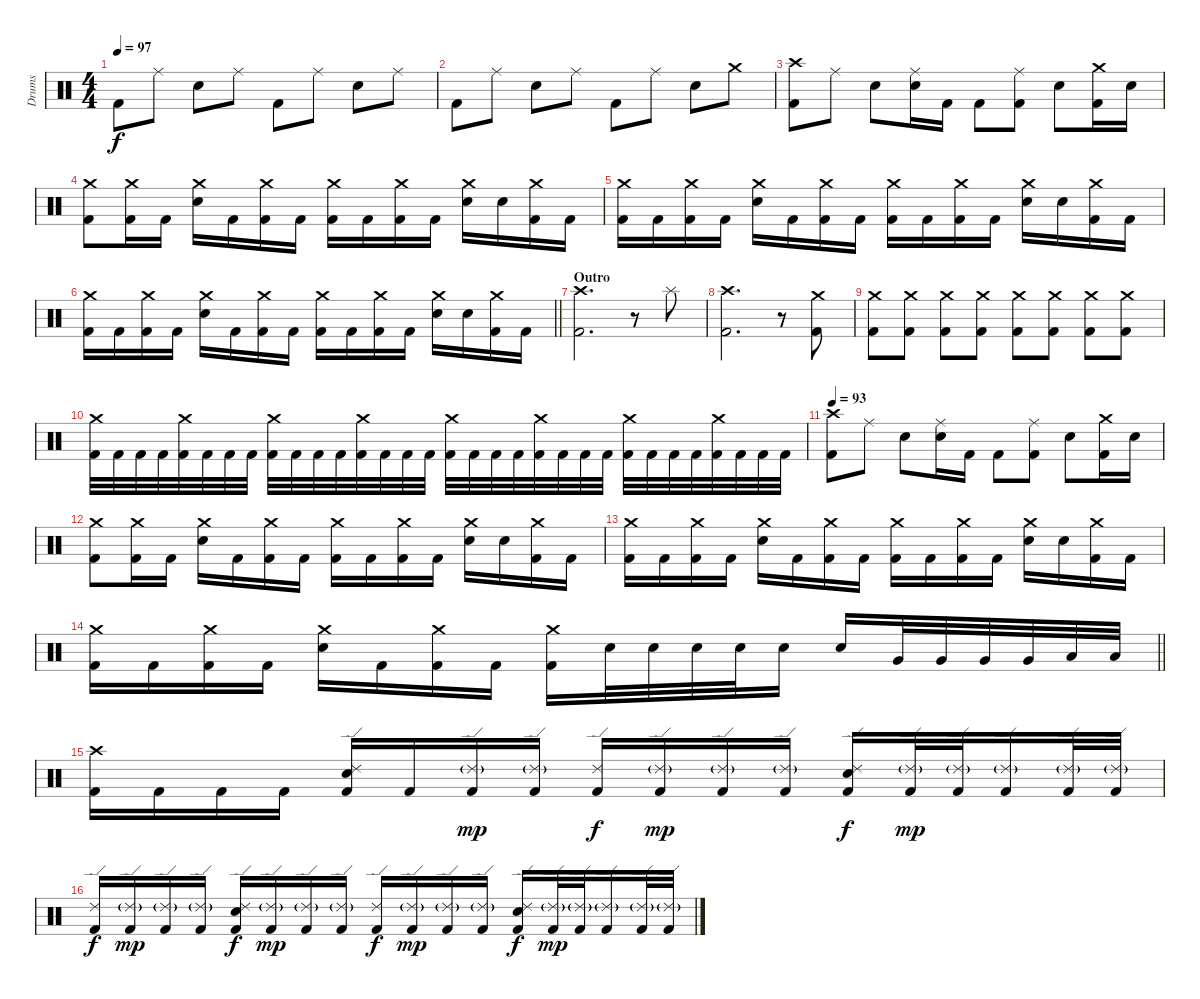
\track ("Drums" "Drums") {instrument percussion}
\staff {score}
\articulation defaults
\ts (4 4)
\tempo 97
\clef neutral
\ks c "Kick (hit) 2".8{dy f} "Ride (middle)".8 "Snare (hit) 2".8 "Ride (middle)".8 "Kick (hit) 2".8 "Ride (middle)".8 "Snare (hit) 2".8 "Ride (middle)".8
|
"Kick (hit) 2".8 "Ride (middle)".8 "Snare (hit) 2".8 "Ride (middle)".8 "Kick (hit) 2".8 "Ride (middle)".8 "Snare (hit) 2".8 "Crash medium (hit)".8 |
("Crash high (hit)" "Kick (hit) 2").8 "Ride (middle)".8 "Snare (hit) 2".8 ("Ride (middle)" "Snare (hit) 2").16 "Kick (hit) 2".16 "Kick (hit) 2".8 ("Ride (middle)" "Kick (hit) 2").8 "Snare (hit) 2".8 ("Crash medium (hit)" "Kick (hit) 2").16 "Snare (hit) 2".16 |
("Crash medium (hit)" "Kick (hit) 2").8 ("Crash medium (hit)" "Kick (hit) 2").16 "Kick (hit) 2".16 ("Crash medium (hit)" "Snare (hit) 2").16 "Kick (hit) 2".16 ("Crash medium (hit)" "Kick (hit) 2").16 "Kick (hit) 2".16 ("Crash medium (hit)" "Kick (hit) 2").16 "Kick (hit) 2".16 ("Crash medium (hit)" "Kick (hit) 2").16 "Kick (hit) 2".16 ("Crash medium (hit)" "Snare (hit) 2").16 "Snare (hit) 2".16 ("Crash medium (hit)" "Kick (hit) 2").16 "Kick (hit) 2".16 |
("Crash medium (hit)" "Kick (hit) 2").16 "Kick (hit) 2".16 ("Crash medium (hit)" "Kick (hit) 2").16 "Kick (hit) 2".16 ("Crash medium (hit)" "Snare (hit) 2").16 "Kick (hit) 2".16 ("Crash medium (hit)" "Kick (hit) 2").16 "Kick (hit) 2".16 ("Crash medium (hit)" "Kick (hit) 2").16 "Kick (hit) 2".16 ("Crash medium (hit)" "Kick (hit) 2").16 "Kick (hit) 2".16 ("Crash medium (hit)" "Snare (hit) 2").16 "Snare (hit) 2".16 ("Crash medium (hit)" "Kick (hit) 2").16 "Kick (hit) 2".16 |
\barLineRight lightlight
("Crash medium (hit)" "Kick (hit) 2").16 "Kick (hit) 2".16 ("Crash medium (hit)" "Kick (hit) 2").16 "Kick (hit) 2".16 ("Crash medium (hit)" "Snare (hit) 2").16 "Kick (hit) 2".16 ("Crash medium (hit)" "Kick (hit) 2").16 "Kick (hit) 2".16 ("Crash medium (hit)" "Kick (hit) 2").16 "Kick (hit) 2".16 ("Crash medium (hit)" "Kick (hit) 2").16 "Kick (hit) 2".16 ("Crash medium (hit)" "Snare (hit) 2").16 "Snare (hit) 2".16 ("Crash medium (hit)" "Kick (hit) 2").16 "Kick (hit) 2".16 |
\section ("" "Outro")
("Crash high (hit)" "Kick (hit) 2").2{d} r.8 "Splash (hit)".8 |
("Crash high (hit)" "Kick (hit) 2").2{d} r.8 ("Crash medium (hit)" "Kick (hit) 2").8 |
("Crash medium (hit)" "Kick (hit) 2").8 ("Crash medium (hit)" "Kick (hit) 2").8 ("Crash medium (hit)" "Kick (hit) 2").8 ("Crash medium (hit)" "Kick (hit) 2").8 ("Crash medium (hit)" "Kick (hit) 2").8 ("Crash medium (hit)" "Kick (hit) 2").8 ("Crash medium (hit)" "Kick (hit) 2").8 ("Crash medium (hit)" "Kick (hit) 2").8 |
("Crash medium (hit)" "Kick (hit) 2").32 "Kick (hit) 2".32 "Kick (hit) 2".32 "Kick (hit) 2".32 ("Crash medium (hit)" "Kick (hit) 2").32 "Kick (hit) 2".32 "Kick (hit) 2".32 "Kick (hit) 2".32 ("Crash medium (hit)" "Kick (hit) 2").32 "Kick (hit) 2".32 "Kick (hit) 2".32 "Kick (hit) 2".32 ("Crash medium (hit)" "Kick (hit) 2").32 "Kick (hit) 2".32 "Kick (hit) 2".32 "Kick (hit) 2".32 ("Crash medium (hit)" "Kick (hit) 2").32 "Kick (hit) 2".32 "Kick (hit) 2".32 "Kick (hit) 2".32 ("Crash medium (hit)" "Kick (hit) 2").32 "Kick (hit) 2".32 "Kick (hit) 2".32 "Kick (hit) 2".32 ("Crash medium (hit)" "Kick (hit) 2").32 "Kick (hit) 2".32 "Kick (hit) 2".32 "Kick (hit) 2".32 ("Crash medium (hit)" "Kick (hit) 2").32 "Kick (hit) 2".32 "Kick (hit) 2".32 "Kick (hit) 2".32 |
\tempo 93
("Crash high (hit)" "Kick (hit) 2").8 "Ride (middle)".8 "Snare (hit) 2".8 ("Ride (middle)" "Snare (hit) 2").16 "Kick (hit) 2".16 "Kick (hit) 2".8 ("Ride (middle)" "Kick (hit) 2").8 "Snare (hit) 2".8 ("Crash medium (hit)" "Kick (hit) 2").16 "Snare (hit) 2".16 |
("Crash medium (hit)" "Kick (hit) 2").8 ("Crash medium (hit)" "Kick (hit) 2").16 "Kick (hit) 2".16 ("Crash medium (hit)" "Snare (hit) 2").16 "Kick (hit) 2".16 ("Crash medium (hit)" "Kick (hit) 2").16 "Kick (hit) 2".16 ("Crash medium (hit)" "Kick (hit) 2").16 "Kick (hit) 2".16 ("Crash medium (hit)" "Kick (hit) 2").16 "Kick (hit) 2".16 ("Crash medium (hit)" "Snare (hit) 2").16 "Snare (hit) 2".16 ("Crash medium (hit)" "Kick (hit) 2").16 "Kick (hit) 2".16 |
("Crash medium (hit)" "Kick (hit) 2").16 "Kick (hit) 2".16 ("Crash medium (hit)" "Kick (hit) 2").16 "Kick (hit) 2".16 ("Crash medium (hit)" "Snare (hit) 2").16 "Kick (hit) 2".16 ("Crash medium (hit)" "Kick (hit) 2").16 "Kick (hit) 2".16 ("Crash medium (hit)" "Kick (hit) 2").16 "Kick (hit) 2".16 ("Crash medium (hit)" "Kick (hit) 2").16 "Kick (hit) 2".16 ("Crash medium (hit)" "Snare (hit) 2").16 "Snare (hit) 2".16 ("Crash medium (hit)" "Kick (hit) 2").16 "Kick (hit) 2".16 |
\barLineRight lightlight
("Crash medium (hit)" "Kick (hit) 2").16 "Kick (hit) 2".16 ("Crash medium (hit)" "Kick (hit) 2").16 "Kick (hit) 2".16 ("Crash medium (hit)" "Snare (hit) 2").16 "Kick (hit) 2".16 ("Crash medium (hit)" "Kick (hit) 2").16 "Kick (hit) 2".16 ("Crash medium (hit)" "Kick (hit) 2").16 "Snare (hit) 2".32 "Snare (hit) 2".32 "Snare (hit) 2".32 "Snare (hit) 2".32 "Snare (hit) 2".16 "Snare (hit) 2".16 "Very Low Tom (hit)".32 "Very Low Tom (hit)".32 "Very Low Tom (hit)".32 "Very Low Tom (hit)".32 "Low Floor Tom (hit)".32 "Low Floor Tom (hit)".32 |
("Crash high (hit)" "Kick (hit) 2").16 "Kick (hit) 2".16 "Kick (hit) 2".16 "Kick (hit) 2".16 ("Ride (edge) 2" "Snare (hit) 2" "Kick (hit) 2").16 "Kick (hit) 2".16 ("Ride (edge) 2"{g} "Kick (hit) 2").16{dy mp} ("Ride (edge) 2"{g} "Kick (hit) 2").16 ("Ride (edge) 2" "Kick (hit) 2").16{dy f} ("Ride (edge) 2"{g} "Kick (hit) 2").16{dy mp} ("Ride (edge) 2"{g} "Kick (hit) 2").16 ("Ride (edge) 2"{g} "Kick (hit) 2").16 ("Ride (edge) 2" "Snare (hit) 2" "Kick (hit) 2").16{dy f} ("Ride (edge) 2"{g} "Kick (hit) 2").32{dy mp} ("Ride (edge) 2"{g} "Kick (hit) 2").32 ("Ride (edge) 2"{g} "Kick (hit) 2").16 ("Ride (edge) 2"{g} "Kick (hit) 2").32 ("Ride (edge) 2"{g} "Kick (hit) 2").32 |
("Ride (edge) 2" "Kick (hit) 2").16{dy f} ("Ride (edge) 2"{g} "Kick (hit) 2").16{dy mp} ("Ride (edge) 2"{g} "Kick (hit) 2").16 ("Ride (edge) 2"{g} "Kick (hit) 2").16 ("Ride (edge) 2" "Snare (hit) 2" "Kick (hit) 2").16{dy f} ("Ride (edge) 2"{g} "Kick (hit) 2").16{dy mp} ("Ride (edge) 2"{g} "Kick (hit) 2").16 ("Ride (edge) 2"{g} "Kick (hit) 2").16 ("Ride (edge) 2" "Kick (hit) 2").16{dy f} ("Ride (edge) 2"{g} "Kick (hit) 2").16{dy mp} ("Ride (edge) 2"{g} "Kick (hit) 2").16 ("Ride (edge) 2"{g} "Kick (hit) 2").16 ("Ride (edge) 2" "Snare (hit) 2" "Kick (hit) 2").16{dy f} ("Ride (edge) 2"{g} "Kick (hit) 2").32{dy mp} ("Ride (edge) 2"{g} "Kick (hit) 2").32 ("Ride (edge) 2"{g} "Kick (hit) 2").16 ("Ride (edge) 2"{g} "Kick (hit) 2").32 ("Ride (edge) 2"{g} "Kick (hit) 2").32
